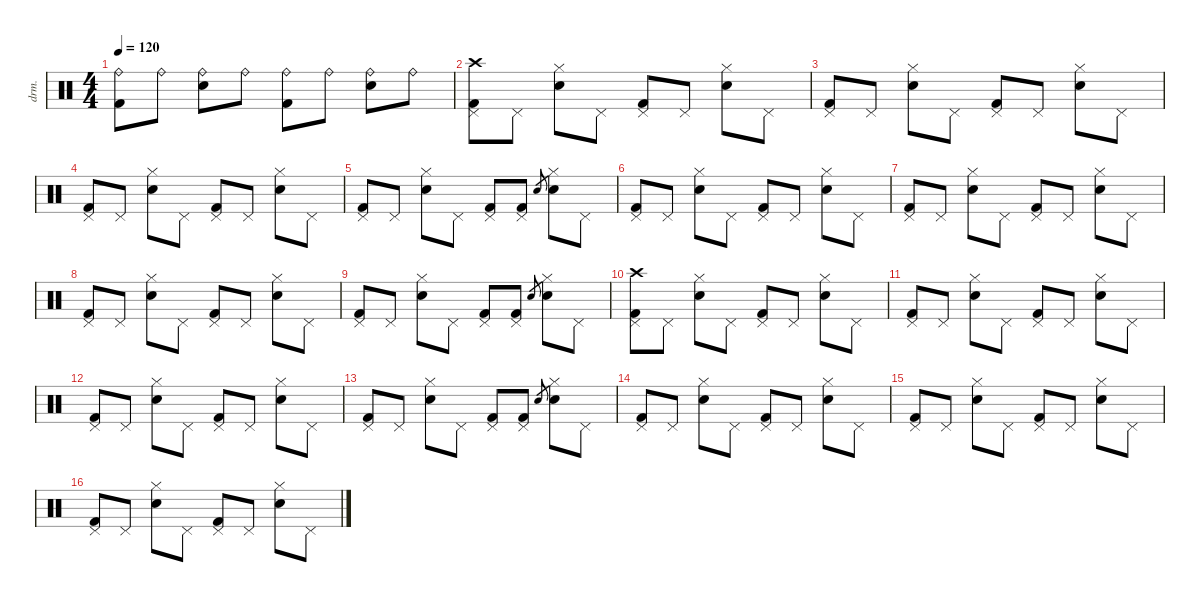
\defaultSystemsLayout 4
\hideDynamics
\bracketExtendMode nobrackets
\otherSystemsTrackNameOrientation horizontal
\track ("Jeff Campitelli" "drm.") {instrument percussion}
\staff {score}
\articulation defaults
\ts (4 4)
\tempo 120
\clef neutral
\ks c
("Ride (bell)" "Kick (hit) 2").8{dy f beam Down} "Ride (bell)".8{beam Down} ("Ride (bell)" "Snare (hit) 2").8{beam Down} "Ride (bell)".8{beam Down} ("Ride (bell)" "Kick (hit) 2").8{beam Down} "Ride (bell)".8{beam Down} ("Ride (bell)" "Snare (hit) 2").8{beam Down} "Ride (bell)".8{beam Down} |
("Crash high (hit)" "Pedal Hi-Hat (hit)" "Kick (hit) 2").8{beam Down} "Pedal Hi-Hat (hit)".8{beam Down} ("Hi-Hat (closed)" "Snare (hit) 2").8{beam Down} "Pedal Hi-Hat (hit)".8{beam Down} ("Pedal Hi-Hat (hit)" "Kick (hit) 2").8{beam Up} "Pedal Hi-Hat (hit)".8{beam Up} ("Hi-Hat (closed)" "Snare (hit) 2").8{beam Down} "Pedal Hi-Hat (hit)".8{beam Down} |
("Pedal Hi-Hat (hit)" "Kick (hit) 2").8{beam Up} "Pedal Hi-Hat (hit)".8{beam Up} ("Hi-Hat (closed)" "Snare (hit) 2").8{beam Down} "Pedal Hi-Hat (hit)".8{beam Down} ("Pedal Hi-Hat (hit)" "Kick (hit) 2").8{beam Up} "Pedal Hi-Hat (hit)".8{beam Up} ("Hi-Hat (closed)" "Snare (hit) 2").8{beam Down} "Pedal Hi-Hat (hit)".8{beam Down} |
("Pedal Hi-Hat (hit)" "Kick (hit) 2").8{beam Up} "Pedal Hi-Hat (hit)".8{beam Up} ("Hi-Hat (closed)" "Snare (hit) 2").8{beam Down} "Pedal Hi-Hat (hit)".8{beam Down} ("Pedal Hi-Hat (hit)" "Kick (hit) 2").8{beam Up} "Pedal Hi-Hat (hit)".8{beam Up} ("Hi-Hat (closed)" "Snare (hit) 2").8{beam Down} "Pedal Hi-Hat (hit)".8{beam Down} |
("Pedal Hi-Hat (hit)" "Kick (hit) 2").8{beam Up} "Pedal Hi-Hat (hit)".8{beam Up} ("Hi-Hat (closed)" "Snare (hit) 2").8{beam Down} "Pedal Hi-Hat (hit)".8{beam Down} ("Pedal Hi-Hat (hit)" "Kick (hit) 2").8{beam Up} ("Pedal Hi-Hat (hit)" "Kick (hit) 2").8{beam Up} "Snare (hit) 2".8{gr dy mf beam Up} ("Hi-Hat (closed)" "Snare (hit) 2").8{dy f beam Down} "Pedal Hi-Hat (hit)".8{beam Down} |
("Pedal Hi-Hat (hit)" "Kick (hit) 2").8{beam Up} "Pedal Hi-Hat (hit)".8{beam Up} ("Hi-Hat (closed)" "Snare (hit) 2").8{beam Down} "Pedal Hi-Hat (hit)".8{beam Down} ("Pedal Hi-Hat (hit)" "Kick (hit) 2").8{beam Up} "Pedal Hi-Hat (hit)".8{beam Up} ("Hi-Hat (closed)" "Snare (hit) 2").8{beam Down} "Pedal Hi-Hat (hit)".8{beam Down} |
("Pedal Hi-Hat (hit)" "Kick (hit) 2").8{beam Up} "Pedal Hi-Hat (hit)".8{beam Up} ("Hi-Hat (closed)" "Snare (hit) 2").8{beam Down} "Pedal Hi-Hat (hit)".8{beam Down} ("Pedal Hi-Hat (hit)" "Kick (hit) 2").8{beam Up} "Pedal Hi-Hat (hit)".8{beam Up} ("Hi-Hat (closed)" "Snare (hit) 2").8{beam Down} "Pedal Hi-Hat (hit)".8{beam Down} |
("Pedal Hi-Hat (hit)" "Kick (hit) 2").8{beam Up} "Pedal Hi-Hat (hit)".8{beam Up} ("Hi-Hat (closed)" "Snare (hit) 2").8{beam Down} "Pedal Hi-Hat (hit)".8{beam Down} ("Pedal Hi-Hat (hit)" "Kick (hit) 2").8{beam Up} "Pedal Hi-Hat (hit)".8{beam Up} ("Hi-Hat (closed)" "Snare (hit) 2").8{beam Down} "Pedal Hi-Hat (hit)".8{beam Down} |
("Pedal Hi-Hat (hit)" "Kick (hit) 2").8{beam Up} "Pedal Hi-Hat (hit)".8{beam Up} ("Hi-Hat (closed)" "Snare (hit) 2").8{beam Down} "Pedal Hi-Hat (hit)".8{beam Down} ("Pedal Hi-Hat (hit)" "Kick (hit) 2").8{beam Up} ("Pedal Hi-Hat (hit)" "Kick (hit) 2").8{beam Up} "Snare (hit) 2".8{gr dy mf beam Up} ("Hi-Hat (closed)" "Snare (hit) 2").8{dy f beam Down} "Pedal Hi-Hat (hit)".8{beam Down} |
("Crash high (hit)" "Pedal Hi-Hat (hit)" "Kick (hit) 2").8{beam Down} "Pedal Hi-Hat (hit)".8{beam Down} ("Hi-Hat (closed)" "Snare (hit) 2").8{beam Down} "Pedal Hi-Hat (hit)".8{beam Down} ("Pedal Hi-Hat (hit)" "Kick (hit) 2").8{beam Up} "Pedal Hi-Hat (hit)".8{beam Up} ("Hi-Hat (closed)" "Snare (hit) 2").8{beam Down} "Pedal Hi-Hat (hit)".8{beam Down} |
("Pedal Hi-Hat (hit)" "Kick (hit) 2").8{beam Up} "Pedal Hi-Hat (hit)".8{beam Up} ("Hi-Hat (closed)" "Snare (hit) 2").8{beam Down} "Pedal Hi-Hat (hit)".8{beam Down} ("Pedal Hi-Hat (hit)" "Kick (hit) 2").8{beam Up} "Pedal Hi-Hat (hit)".8{beam Up} ("Hi-Hat (closed)" "Snare (hit) 2").8{beam Down} "Pedal Hi-Hat (hit)".8{beam Down} |
("Pedal Hi-Hat (hit)" "Kick (hit) 2").8{beam Up} "Pedal Hi-Hat (hit)".8{beam Up} ("Hi-Hat (closed)" "Snare (hit) 2").8{beam Down} "Pedal Hi-Hat (hit)".8{beam Down} ("Pedal Hi-Hat (hit)" "Kick (hit) 2").8{beam Up} "Pedal Hi-Hat (hit)".8{beam Up} ("Hi-Hat (closed)" "Snare (hit) 2").8{beam Down} "Pedal Hi-Hat (hit)".8{beam Down} |
("Pedal Hi-Hat (hit)" "Kick (hit) 2").8{beam Up} "Pedal Hi-Hat (hit)".8{beam Up} ("Hi-Hat (closed)" "Snare (hit) 2").8{beam Down} "Pedal Hi-Hat (hit)".8{beam Down} ("Pedal Hi-Hat (hit)" "Kick (hit) 2").8{beam Up} ("Pedal Hi-Hat (hit)" "Kick (hit) 2").8{beam Up} "Snare (hit) 2".8{gr dy mf beam Up} ("Hi-Hat (closed)" "Snare (hit) 2").8{dy f beam Down} "Pedal Hi-Hat (hit)".8{beam Down} |
("Pedal Hi-Hat (hit)" "Kick (hit) 2").8{beam Up} "Pedal Hi-Hat (hit)".8{beam Up} ("Hi-Hat (closed)" "Snare (hit) 2").8{beam Down} "Pedal Hi-Hat (hit)".8{beam Down} ("Pedal Hi-Hat (hit)" "Kick (hit) 2").8{beam Up} "Pedal Hi-Hat (hit)".8{beam Up} ("Hi-Hat (closed)" "Snare (hit) 2").8{beam Down} "Pedal Hi-Hat (hit)".8{beam Down} |
("Pedal Hi-Hat (hit)" "Kick (hit) 2").8{beam Up} "Pedal Hi-Hat (hit)".8{beam Up} ("Hi-Hat (closed)" "Snare (hit) 2").8{beam Down} "Pedal Hi-Hat (hit)".8{beam Down} ("Pedal Hi-Hat (hit)" "Kick (hit) 2").8{beam Up} "Pedal Hi-Hat (hit)".8{beam Up} ("Hi-Hat (closed)" "Snare (hit) 2").8{beam Down} "Pedal Hi-Hat (hit)".8{beam Down} |
("Pedal Hi-Hat (hit)" "Kick (hit) 2").8{beam Up} "Pedal Hi-Hat (hit)".8{beam Up} ("Hi-Hat (closed)" "Snare (hit) 2").8{beam Down} "Pedal Hi-Hat (hit)".8{beam Down} ("Pedal Hi-Hat (hit)" "Kick (hit) 2").8{beam Up} "Pedal Hi-Hat (hit)".8{beam Up} ("Hi-Hat (closed)" "Snare (hit) 2").8{beam Down} "Pedal Hi-Hat (hit)".8{beam Down}
